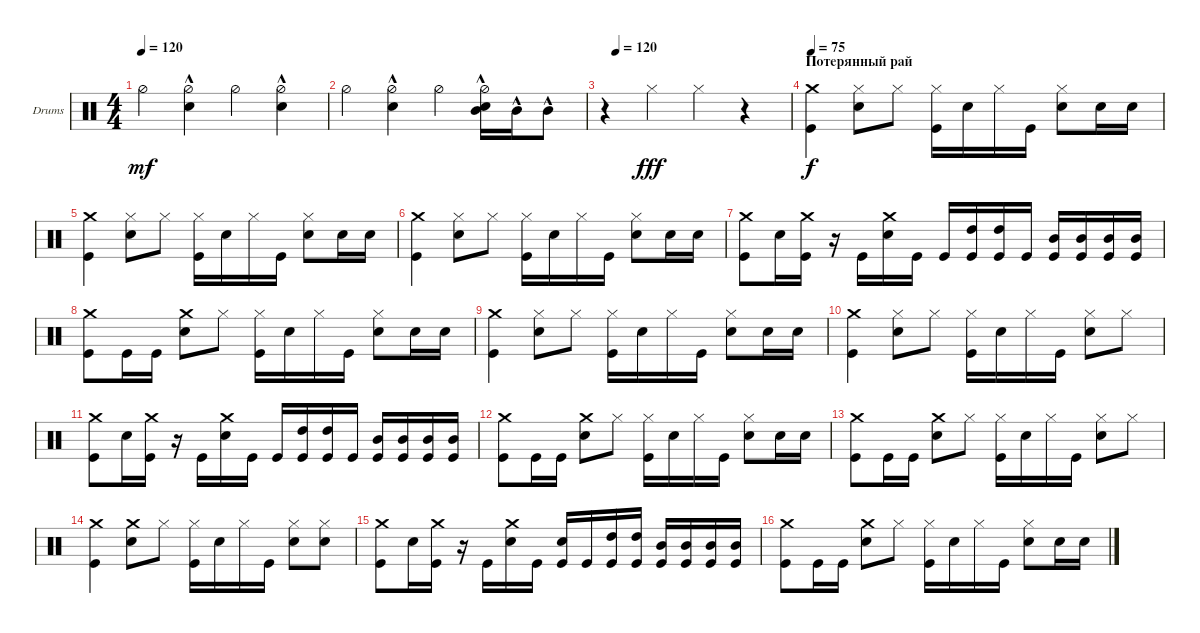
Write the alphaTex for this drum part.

\defaultSystemsLayout 4
\bracketExtendMode nobrackets
\firstSystemTrackNameOrientation horizontal
\otherSystemsTrackNameOrientation horizontal
\track ("Ударные" "Drums") {instrument percussion}
\staff {score}
\articulation defaults
\ts (4 4)
\tempo 120
\clef neutral
\ks c "Hi-Hat (half)".4{dy mf}
("Hi-Hat (half)" "Snare (hit) 2"{hac}).4 "Hi-Hat (half)".4 ("Hi-Hat (half)" "Snare (hit) 2"{hac}).4 |
"Hi-Hat (half)".4 ("Hi-Hat (half)" "Snare (hit) 2"{hac}).4 "Hi-Hat (half)".4 ("Hi-Hat (half)" "Snare (hit) 2"{hac} "Mid Tom (hit)").16 "Mid Tom (hit)"{hac}.16 "Mid Tom (hit)"{hac}.8 |
\tempo (120 0.0625)
r.4 "Hi-Hat (closed)".4{dy fff} "Hi-Hat (closed)".4 r.4 |
\section ("" "Потерянный рай")
\tempo 75
("Crash medium (hit)" "Kick (hit)").4{dy f} ("Snare (hit) 2" "Hi-Hat (closed)").8 "Hi-Hat (closed)".8 ("Kick (hit)" "Hi-Hat (closed)").16 "Snare (hit) 2".16 "Hi-Hat (closed)".16 "Kick (hit)".16 ("Snare (hit) 2" "Hi-Hat (closed)").8 "Snare (hit) 2".16 "Snare (hit) 2".16 |
("Crash medium (hit)" "Kick (hit)").4 ("Snare (hit) 2" "Hi-Hat (closed)").8 "Hi-Hat (closed)".8 ("Kick (hit)" "Hi-Hat (closed)").16 "Snare (hit) 2".16 "Hi-Hat (closed)".16 "Kick (hit)".16 ("Snare (hit) 2" "Hi-Hat (closed)").8 "Snare (hit) 2".16 "Snare (hit) 2".16 |
("Crash medium (hit)" "Kick (hit)").4 ("Snare (hit) 2" "Hi-Hat (closed)").8 "Hi-Hat (closed)".8 ("Kick (hit)" "Hi-Hat (closed)").16 "Snare (hit) 2".16 "Hi-Hat (closed)".16 "Kick (hit)".16 ("Snare (hit) 2" "Hi-Hat (closed)").8 "Snare (hit) 2".16 "Snare (hit) 2".16 |
("Kick (hit)" "Crash medium (hit)").8 "Snare (hit) 2".16 ("Kick (hit)" "Crash medium (hit)").16 r.16 "Kick (hit)".16 ("Crash medium (hit)" "Snare (hit) 2").16 "Kick (hit)".16 "Kick (hit)".16 ("High Tom (hit)" "Kick (hit)").16 ("High Tom (hit)" "Kick (hit)").16 "Kick (hit)".16 ("Mid Tom (hit)" "Kick (hit)").16 ("Kick (hit)" "Mid Tom (hit)").16 ("Mid Tom (hit)" "Kick (hit)").16 ("Mid Tom (hit)" "Kick (hit)").16 |
("Crash medium (hit)" "Kick (hit)").8 "Kick (hit)".16 "Kick (hit)".16 ("Snare (hit) 2" "Crash medium (hit)").8 "Hi-Hat (closed)".8 ("Kick (hit)" "Hi-Hat (closed)").16 "Snare (hit) 2".16 "Hi-Hat (closed)".16 "Kick (hit)".16 ("Snare (hit) 2" "Hi-Hat (closed)").8 "Snare (hit) 2".16 "Snare (hit) 2".16 |
("Crash medium (hit)" "Kick (hit)").4 ("Snare (hit) 2" "Hi-Hat (closed)").8 "Hi-Hat (closed)".8 ("Kick (hit)" "Hi-Hat (closed)").16 "Snare (hit) 2".16 "Hi-Hat (closed)".16 "Kick (hit)".16 ("Snare (hit) 2" "Hi-Hat (closed)").8 "Snare (hit) 2".16 "Snare (hit) 2".16 |
("Crash medium (hit)" "Kick (hit)").4 ("Snare (hit) 2" "Hi-Hat (closed)").8 "Hi-Hat (closed)".8 ("Kick (hit)" "Hi-Hat (closed)").16 "Snare (hit) 2".16 "Hi-Hat (closed)".16 "Kick (hit)".16 ("Snare (hit) 2" "Hi-Hat (closed)").8 "Hi-Hat (closed)".8 |
("Kick (hit)" "Crash medium (hit)").8 "Snare (hit) 2".16 ("Kick (hit)" "Crash medium (hit)").16 r.16 "Kick (hit)".16 ("Crash medium (hit)" "Snare (hit) 2").16 "Kick (hit)".16 "Kick (hit)".16 ("High Tom (hit)" "Kick (hit)").16 ("High Tom (hit)" "Kick (hit)").16 "Kick (hit)".16 ("Mid Tom (hit)" "Kick (hit)").16 ("Kick (hit)" "Mid Tom (hit)").16 ("Mid Tom (hit)" "Kick (hit)").16 ("Mid Tom (hit)" "Kick (hit)").16 |
("Crash medium (hit)" "Kick (hit)").8 "Kick (hit)".16 "Kick (hit)".16 ("Snare (hit) 2" "Crash medium (hit)").8 "Hi-Hat (closed)".8 ("Kick (hit)" "Hi-Hat (closed)").16 "Snare (hit) 2".16 "Hi-Hat (closed)".16 "Kick (hit)".16 ("Snare (hit) 2" "Hi-Hat (closed)").8 "Snare (hit) 2".16 "Snare (hit) 2".16 |
("Crash medium (hit)" "Kick (hit)").8 "Kick (hit)".16 "Kick (hit)".16 ("Snare (hit) 2" "Crash medium (hit)").8 "Hi-Hat (closed)".8 ("Kick (hit)" "Hi-Hat (closed)").16 "Snare (hit) 2".16 "Hi-Hat (closed)".16 "Kick (hit)".16 ("Snare (hit) 2" "Hi-Hat (closed)").8 "Hi-Hat (closed)".8 |
("Crash medium (hit)" "Kick (hit)").4 ("Snare (hit) 2" "Crash medium (hit)").8 "Hi-Hat (closed)".8 ("Kick (hit)" "Hi-Hat (closed)").16 "Snare (hit) 2".16 "Hi-Hat (closed)".16 "Kick (hit)".16 ("Snare (hit) 2" "Hi-Hat (closed)").8 ("Snare (hit) 2" "Hi-Hat (closed)").8 |
("Kick (hit)" "Crash medium (hit)").8 "Snare (hit) 2".16 ("Kick (hit)" "Crash medium (hit)").16 r.16 "Kick (hit)".16 ("Crash medium (hit)" "Snare (hit) 2").16 "Kick (hit)".16 ("Kick (hit)" "Snare (hit) 2").16 "Kick (hit)".16 ("High Tom (hit)" "Kick (hit)").16 ("Kick (hit)" "High Tom (hit)").16 ("Mid Tom (hit)" "Kick (hit)").16 ("Kick (hit)" "Mid Tom (hit)").16 ("Mid Tom (hit)" "Kick (hit)").16 ("Mid Tom (hit)" "Kick (hit)").16 |
("Crash medium (hit)" "Kick (hit)").8 "Kick (hit)".16 "Kick (hit)".16 ("Snare (hit) 2" "Crash medium (hit)").8 "Hi-Hat (closed)".8 ("Kick (hit)" "Hi-Hat (closed)").16 "Snare (hit) 2".16 "Hi-Hat (closed)".16 "Kick (hit)".16 ("Snare (hit) 2" "Hi-Hat (closed)").8 "Snare (hit) 2".16 "Snare (hit) 2".16
